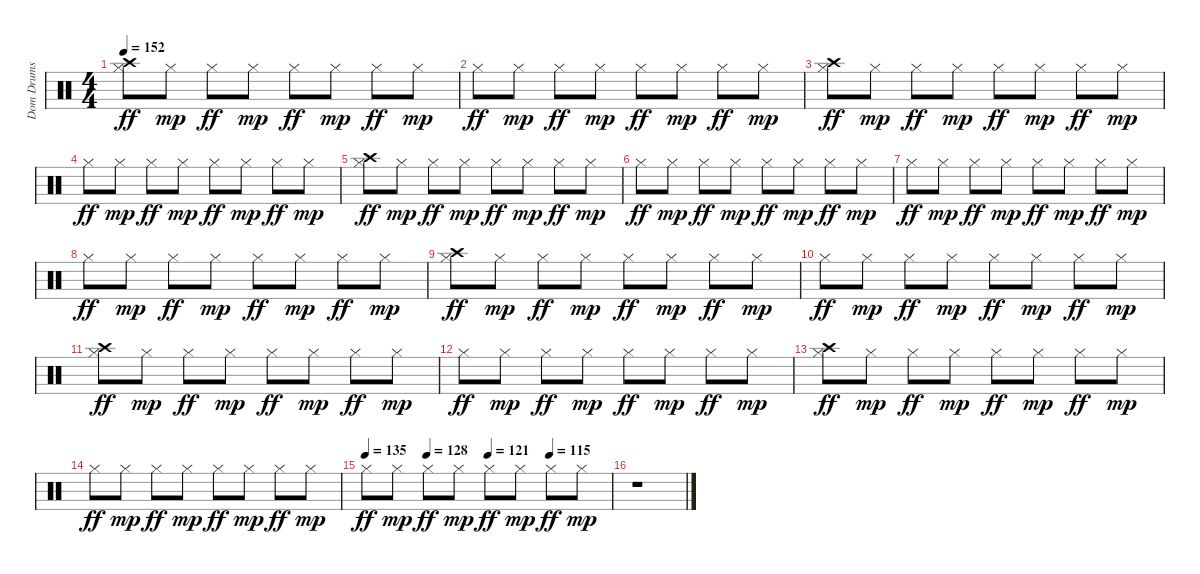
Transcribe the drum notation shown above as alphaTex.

\track ("Dom Drums" "Dom Drums") {instrument percussion}
\staff {score}
\articulation defaults
\ts (4 4)
\tempo 152
\clef neutral
\ks c
("Hi-Hat (closed)" "Crash high (hit)").8{dy ff} "Hi-Hat (closed)".8{dy mp} "Hi-Hat (closed)".8{dy ff} "Hi-Hat (closed)".8{dy mp} "Hi-Hat (closed)".8{dy ff} "Hi-Hat (closed)".8{dy mp} "Hi-Hat (closed)".8{dy ff} "Hi-Hat (closed)".8{dy mp} |
"Hi-Hat (closed)".8{dy ff} "Hi-Hat (closed)".8{dy mp} "Hi-Hat (closed)".8{dy ff} "Hi-Hat (closed)".8{dy mp} "Hi-Hat (closed)".8{dy ff} "Hi-Hat (closed)".8{dy mp} "Hi-Hat (closed)".8{dy ff} "Hi-Hat (closed)".8{dy mp} |
("Hi-Hat (closed)" "Crash high (hit)").8{dy ff} "Hi-Hat (closed)".8{dy mp} "Hi-Hat (closed)".8{dy ff} "Hi-Hat (closed)".8{dy mp} "Hi-Hat (closed)".8{dy ff} "Hi-Hat (closed)".8{dy mp} "Hi-Hat (closed)".8{dy ff} "Hi-Hat (closed)".8{dy mp} |
"Hi-Hat (closed)".8{dy ff} "Hi-Hat (closed)".8{dy mp} "Hi-Hat (closed)".8{dy ff} "Hi-Hat (closed)".8{dy mp} "Hi-Hat (closed)".8{dy ff} "Hi-Hat (closed)".8{dy mp} "Hi-Hat (closed)".8{dy ff} "Hi-Hat (closed)".8{dy mp} |
("Hi-Hat (closed)" "Crash high (hit)").8{dy ff} "Hi-Hat (closed)".8{dy mp} "Hi-Hat (closed)".8{dy ff} "Hi-Hat (closed)".8{dy mp} "Hi-Hat (closed)".8{dy ff} "Hi-Hat (closed)".8{dy mp} "Hi-Hat (closed)".8{dy ff} "Hi-Hat (closed)".8{dy mp} |
"Hi-Hat (closed)".8{dy ff} "Hi-Hat (closed)".8{dy mp} "Hi-Hat (closed)".8{dy ff} "Hi-Hat (closed)".8{dy mp} "Hi-Hat (closed)".8{dy ff} "Hi-Hat (closed)".8{dy mp} "Hi-Hat (closed)".8{dy ff} "Hi-Hat (closed)".8{dy mp} |
"Hi-Hat (closed)".8{dy ff} "Hi-Hat (closed)".8{dy mp} "Hi-Hat (closed)".8{dy ff} "Hi-Hat (closed)".8{dy mp} "Hi-Hat (closed)".8{dy ff} "Hi-Hat (closed)".8{dy mp} "Hi-Hat (closed)".8{dy ff} "Hi-Hat (closed)".8{dy mp} |
"Hi-Hat (closed)".8{dy ff} "Hi-Hat (closed)".8{dy mp} "Hi-Hat (closed)".8{dy ff} "Hi-Hat (closed)".8{dy mp} "Hi-Hat (closed)".8{dy ff} "Hi-Hat (closed)".8{dy mp} "Hi-Hat (closed)".8{dy ff} "Hi-Hat (closed)".8{dy mp} |
("Hi-Hat (closed)" "Crash high (hit)").8{dy ff} "Hi-Hat (closed)".8{dy mp} "Hi-Hat (closed)".8{dy ff} "Hi-Hat (closed)".8{dy mp} "Hi-Hat (closed)".8{dy ff} "Hi-Hat (closed)".8{dy mp} "Hi-Hat (closed)".8{dy ff} "Hi-Hat (closed)".8{dy mp} |
"Hi-Hat (closed)".8{dy ff} "Hi-Hat (closed)".8{dy mp} "Hi-Hat (closed)".8{dy ff} "Hi-Hat (closed)".8{dy mp} "Hi-Hat (closed)".8{dy ff} "Hi-Hat (closed)".8{dy mp} "Hi-Hat (closed)".8{dy ff} "Hi-Hat (closed)".8{dy mp} |
("Hi-Hat (closed)" "Crash high (hit)").8{dy ff} "Hi-Hat (closed)".8{dy mp} "Hi-Hat (closed)".8{dy ff} "Hi-Hat (closed)".8{dy mp} "Hi-Hat (closed)".8{dy ff} "Hi-Hat (closed)".8{dy mp} "Hi-Hat (closed)".8{dy ff} "Hi-Hat (closed)".8{dy mp} |
"Hi-Hat (closed)".8{dy ff} "Hi-Hat (closed)".8{dy mp} "Hi-Hat (closed)".8{dy ff} "Hi-Hat (closed)".8{dy mp} "Hi-Hat (closed)".8{dy ff} "Hi-Hat (closed)".8{dy mp} "Hi-Hat (closed)".8{dy ff} "Hi-Hat (closed)".8{dy mp} |
("Hi-Hat (closed)" "Crash high (hit)").8{dy ff} "Hi-Hat (closed)".8{dy mp} "Hi-Hat (closed)".8{dy ff} "Hi-Hat (closed)".8{dy mp} "Hi-Hat (closed)".8{dy ff} "Hi-Hat (closed)".8{dy mp} "Hi-Hat (closed)".8{dy ff} "Hi-Hat (closed)".8{dy mp} |
"Hi-Hat (closed)".8{dy ff} "Hi-Hat (closed)".8{dy mp} "Hi-Hat (closed)".8{dy ff} "Hi-Hat (closed)".8{dy mp} "Hi-Hat (closed)".8{dy ff} "Hi-Hat (closed)".8{dy mp} "Hi-Hat (closed)".8{dy ff} "Hi-Hat (closed)".8{dy mp} |
\tempo 135
\tempo (128 0.25)
\tempo (121 0.5)
\tempo (115 0.75)
"Hi-Hat (closed)".8{dy ff} "Hi-Hat (closed)".8{dy mp} "Hi-Hat (closed)".8{dy ff} "Hi-Hat (closed)".8{dy mp} "Hi-Hat (closed)".8{dy ff} "Hi-Hat (closed)".8{dy mp} "Hi-Hat (closed)".8{dy ff} "Hi-Hat (closed)".8{dy mp} |
r.1
